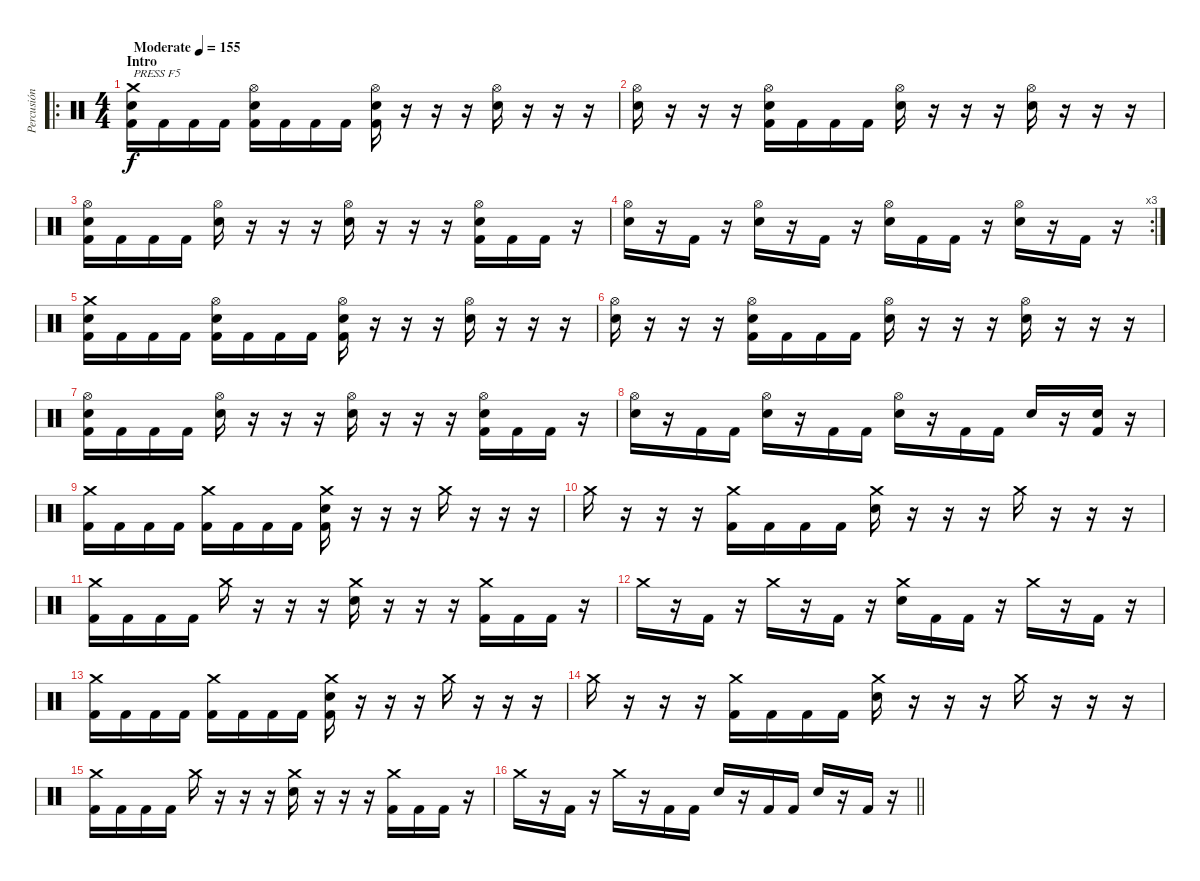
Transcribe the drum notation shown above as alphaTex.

\track ("Percusión" "Percusión") {instrument percussion}
\staff {score}
\articulation defaults
\ro
\ts (4 4)
\section ("" "Intro")
\tempo (155 "Moderate")
\clef neutral
\ks c
("Crash medium (hit)" "Electric Snare (hit)" "Kick (hit) 2").16{txt "PRESS F5" dy f} "Kick (hit) 2".16 "Kick (hit) 2".16 "Kick (hit) 2".16 ("Hi-Hat (open)" "Electric Snare (hit)" "Kick (hit) 2").16 "Kick (hit) 2".16 "Kick (hit) 2".16 "Kick (hit) 2".16 ("Hi-Hat (open)" "Electric Snare (hit)" "Kick (hit) 2").16 r.16 r.16 r.16 ("Hi-Hat (open)" "Electric Snare (hit)").16 r.16 r.16 r.16 |
("Hi-Hat (open)" "Electric Snare (hit)").16 r.16 r.16 r.16 ("Hi-Hat (open)" "Electric Snare (hit)" "Kick (hit) 2").16 "Kick (hit) 2".16 "Kick (hit) 2".16 "Kick (hit) 2".16 ("Hi-Hat (open)" "Electric Snare (hit)").16 r.16 r.16 r.16 ("Hi-Hat (open)" "Electric Snare (hit)").16 r.16 r.16 r.16 |
("Hi-Hat (open)" "Electric Snare (hit)" "Kick (hit) 2").16 "Kick (hit) 2".16 "Kick (hit) 2".16 "Kick (hit) 2".16 ("Hi-Hat (open)" "Electric Snare (hit)").16 r.16 r.16 r.16 ("Hi-Hat (open)" "Electric Snare (hit)").16 r.16 r.16 r.16 ("Hi-Hat (open)" "Electric Snare (hit)" "Kick (hit) 2").16 "Kick (hit) 2".16 "Kick (hit) 2".16 r.16 |
\rc 3
("Hi-Hat (open)" "Electric Snare (hit)").16 r.16 "Kick (hit) 2".16 r.16 ("Hi-Hat (open)" "Electric Snare (hit)").16 r.16 "Kick (hit) 2".16 r.16 ("Hi-Hat (open)" "Electric Snare (hit)").16 "Kick (hit) 2".16 "Kick (hit) 2".16 r.16 ("Hi-Hat (open)" "Electric Snare (hit)").16 r.16 "Kick (hit) 2".16 r.16 |
("Crash medium (hit)" "Electric Snare (hit)" "Kick (hit) 2").16 "Kick (hit) 2".16 "Kick (hit) 2".16 "Kick (hit) 2".16 ("Hi-Hat (open)" "Electric Snare (hit)" "Kick (hit) 2").16 "Kick (hit) 2".16 "Kick (hit) 2".16 "Kick (hit) 2".16 ("Hi-Hat (open)" "Electric Snare (hit)" "Kick (hit) 2").16 r.16 r.16 r.16 ("Hi-Hat (open)" "Electric Snare (hit)").16 r.16 r.16 r.16 |
("Hi-Hat (open)" "Electric Snare (hit)").16 r.16 r.16 r.16 ("Hi-Hat (open)" "Electric Snare (hit)" "Kick (hit) 2").16 "Kick (hit) 2".16 "Kick (hit) 2".16 "Kick (hit) 2".16 ("Hi-Hat (open)" "Electric Snare (hit)").16 r.16 r.16 r.16 ("Hi-Hat (open)" "Electric Snare (hit)").16 r.16 r.16 r.16 |
("Hi-Hat (open)" "Electric Snare (hit)" "Kick (hit) 2").16 "Kick (hit) 2".16 "Kick (hit) 2".16 "Kick (hit) 2".16 ("Hi-Hat (open)" "Electric Snare (hit)").16 r.16 r.16 r.16 ("Hi-Hat (open)" "Electric Snare (hit)").16 r.16 r.16 r.16 ("Hi-Hat (open)" "Electric Snare (hit)" "Kick (hit) 2").16 "Kick (hit) 2".16 "Kick (hit) 2".16 r.16 |
("Hi-Hat (open)" "Electric Snare (hit)").16 r.16 "Kick (hit) 2".16 "Kick (hit) 2".16 ("Hi-Hat (open)" "Electric Snare (hit)").16 r.16 "Kick (hit) 2".16 "Kick (hit) 2".16 ("Hi-Hat (open)" "Electric Snare (hit)").16 r.16 "Kick (hit) 2".16 "Kick (hit) 2".16 "Electric Snare (hit)".16 r.16 ("Electric Snare (hit)" "Kick (hit) 2").16 r.16 |
("Crash medium (hit)" "Kick (hit) 2").16 "Kick (hit) 2".16 "Kick (hit) 2".16 "Kick (hit) 2".16 ("Crash medium (hit)" "Kick (hit) 2").16 "Kick (hit) 2".16 "Kick (hit) 2".16 "Kick (hit) 2".16 ("Crash medium (hit)" "Electric Snare (hit)" "Kick (hit) 2").16 r.16 r.16 r.16 "Crash medium (hit)".16 r.16 r.16 r.16 |
"Crash medium (hit)".16 r.16 r.16 r.16 ("Crash medium (hit)" "Kick (hit) 2").16 "Kick (hit) 2".16 "Kick (hit) 2".16 "Kick (hit) 2".16 ("Crash medium (hit)" "Electric Snare (hit)").16 r.16 r.16 r.16 "Crash medium (hit)".16 r.16 r.16 r.16 |
("Crash medium (hit)" "Kick (hit) 2").16 "Kick (hit) 2".16 "Kick (hit) 2".16 "Kick (hit) 2".16 "Crash medium (hit)".16 r.16 r.16 r.16 ("Crash medium (hit)" "Electric Snare (hit)").16 r.16 r.16 r.16 ("Crash medium (hit)" "Kick (hit) 2").16 "Kick (hit) 2".16 "Kick (hit) 2".16 r.16 |
"Crash medium (hit)".16 r.16 "Kick (hit) 2".16 r.16 "Crash medium (hit)".16 r.16 "Kick (hit) 2".16 r.16 ("Crash medium (hit)" "Electric Snare (hit)").16 "Kick (hit) 2".16 "Kick (hit) 2".16 r.16 "Crash medium (hit)".16 r.16 "Kick (hit) 2".16 r.16 |
("Crash medium (hit)" "Kick (hit) 2").16 "Kick (hit) 2".16 "Kick (hit) 2".16 "Kick (hit) 2".16 ("Crash medium (hit)" "Kick (hit) 2").16 "Kick (hit) 2".16 "Kick (hit) 2".16 "Kick (hit) 2".16 ("Crash medium (hit)" "Electric Snare (hit)" "Kick (hit) 2").16 r.16 r.16 r.16 "Crash medium (hit)".16 r.16 r.16 r.16 |
"Crash medium (hit)".16 r.16 r.16 r.16 ("Crash medium (hit)" "Kick (hit) 2").16 "Kick (hit) 2".16 "Kick (hit) 2".16 "Kick (hit) 2".16 ("Crash medium (hit)" "Electric Snare (hit)").16 r.16 r.16 r.16 "Crash medium (hit)".16 r.16 r.16 r.16 |
("Crash medium (hit)" "Kick (hit) 2").16 "Kick (hit) 2".16 "Kick (hit) 2".16 "Kick (hit) 2".16 "Crash medium (hit)".16 r.16 r.16 r.16 ("Crash medium (hit)" "Electric Snare (hit)").16 r.16 r.16 r.16 ("Crash medium (hit)" "Kick (hit) 2").16 "Kick (hit) 2".16 "Kick (hit) 2".16 r.16 |
\barLineRight lightlight "Crash medium (hit)".16
r.16 "Kick (hit) 2".16 r.16 "Crash medium (hit)".16 r.16 "Kick (hit) 2".16 "Kick (hit) 2".16 "Electric Snare (hit)".16 r.16 "Kick (hit) 2".16 "Kick (hit) 2".16 "Electric Snare (hit)".16 r.16 "Kick (hit) 2".16 r.16
